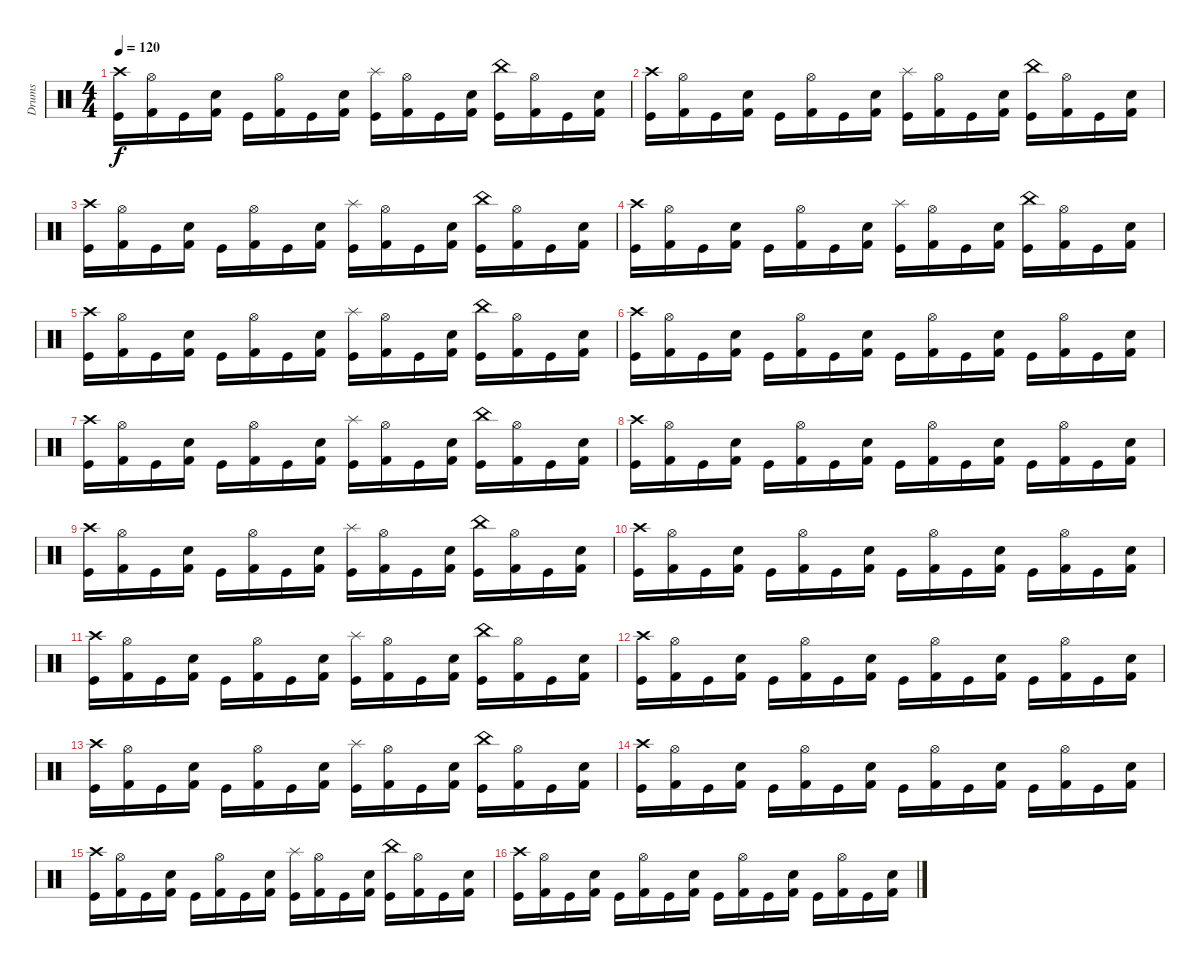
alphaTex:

\track ("Drums" "Drums") {instrument percussion}
\staff {score}
\articulation defaults
\ts (4 4)
\tempo 120
\clef neutral
\ks c
("Crash high (hit)" "Kick (hit)").16{dy f} ("Hi-Hat (open)" "Kick (hit) 2").16 "Kick (hit)".16 ("Electric Snare (hit)" "Kick (hit) 2").16 "Kick (hit)".16 ("Hi-Hat (open)" "Kick (hit) 2").16 "Kick (hit)".16 ("Electric Snare (hit)" "Kick (hit) 2").16 ("Splash (hit)" "Kick (hit)").16 ("Hi-Hat (open)" "Kick (hit) 2").16 "Kick (hit)".16 ("Electric Snare (hit)" "Kick (hit) 2").16 ("China (hit)" "Kick (hit)").16 ("Hi-Hat (open)" "Kick (hit) 2").16 "Kick (hit)".16 ("Electric Snare (hit)" "Kick (hit) 2").16 |
("Crash high (hit)" "Kick (hit)").16 ("Hi-Hat (open)" "Kick (hit) 2").16 "Kick (hit)".16 ("Electric Snare (hit)" "Kick (hit) 2").16 "Kick (hit)".16 ("Hi-Hat (open)" "Kick (hit) 2").16 "Kick (hit)".16 ("Electric Snare (hit)" "Kick (hit) 2").16 ("Splash (hit)" "Kick (hit)").16 ("Hi-Hat (open)" "Kick (hit) 2").16 "Kick (hit)".16 ("Electric Snare (hit)" "Kick (hit) 2").16 ("China (hit)" "Kick (hit)").16 ("Hi-Hat (open)" "Kick (hit) 2").16 "Kick (hit)".16 ("Electric Snare (hit)" "Kick (hit) 2").16 |
("Crash high (hit)" "Kick (hit)").16 ("Hi-Hat (open)" "Kick (hit) 2").16 "Kick (hit)".16 ("Electric Snare (hit)" "Kick (hit) 2").16 "Kick (hit)".16 ("Hi-Hat (open)" "Kick (hit) 2").16 "Kick (hit)".16 ("Electric Snare (hit)" "Kick (hit) 2").16 ("Splash (hit)" "Kick (hit)").16 ("Hi-Hat (open)" "Kick (hit) 2").16 "Kick (hit)".16 ("Electric Snare (hit)" "Kick (hit) 2").16 ("China (hit)" "Kick (hit)").16 ("Hi-Hat (open)" "Kick (hit) 2").16 "Kick (hit)".16 ("Electric Snare (hit)" "Kick (hit) 2").16 |
("Crash high (hit)" "Kick (hit)").16 ("Hi-Hat (open)" "Kick (hit) 2").16 "Kick (hit)".16 ("Electric Snare (hit)" "Kick (hit) 2").16 "Kick (hit)".16 ("Hi-Hat (open)" "Kick (hit) 2").16 "Kick (hit)".16 ("Electric Snare (hit)" "Kick (hit) 2").16 ("Splash (hit)" "Kick (hit)").16 ("Hi-Hat (open)" "Kick (hit) 2").16 "Kick (hit)".16 ("Electric Snare (hit)" "Kick (hit) 2").16 ("China (hit)" "Kick (hit)").16 ("Hi-Hat (open)" "Kick (hit) 2").16 "Kick (hit)".16 ("Electric Snare (hit)" "Kick (hit) 2").16 |
("Crash high (hit)" "Kick (hit)").16 ("Hi-Hat (open)" "Kick (hit) 2").16 "Kick (hit)".16 ("Electric Snare (hit)" "Kick (hit) 2").16 "Kick (hit)".16 ("Hi-Hat (open)" "Kick (hit) 2").16 "Kick (hit)".16 ("Electric Snare (hit)" "Kick (hit) 2").16 ("Splash (hit)" "Kick (hit)").16 ("Hi-Hat (open)" "Kick (hit) 2").16 "Kick (hit)".16 ("Electric Snare (hit)" "Kick (hit) 2").16 ("China (hit)" "Kick (hit)").16 ("Hi-Hat (open)" "Kick (hit) 2").16 "Kick (hit)".16 ("Electric Snare (hit)" "Kick (hit) 2").16 |
("Crash high (hit)" "Kick (hit)").16 ("Hi-Hat (open)" "Kick (hit) 2").16 "Kick (hit)".16 ("Electric Snare (hit)" "Kick (hit) 2").16 "Kick (hit)".16 ("Hi-Hat (open)" "Kick (hit) 2").16 "Kick (hit)".16 ("Electric Snare (hit)" "Kick (hit) 2").16 "Kick (hit)".16 ("Hi-Hat (open)" "Kick (hit) 2").16 "Kick (hit)".16 ("Electric Snare (hit)" "Kick (hit) 2").16 "Kick (hit)".16 ("Hi-Hat (open)" "Kick (hit) 2").16 "Kick (hit)".16 ("Electric Snare (hit)" "Kick (hit) 2").16 |
("Crash high (hit)" "Kick (hit)").16 ("Hi-Hat (open)" "Kick (hit) 2").16 "Kick (hit)".16 ("Electric Snare (hit)" "Kick (hit) 2").16 "Kick (hit)".16 ("Hi-Hat (open)" "Kick (hit) 2").16 "Kick (hit)".16 ("Electric Snare (hit)" "Kick (hit) 2").16 ("Splash (hit)" "Kick (hit)").16 ("Hi-Hat (open)" "Kick (hit) 2").16 "Kick (hit)".16 ("Electric Snare (hit)" "Kick (hit) 2").16 ("China (hit)" "Kick (hit)").16 ("Hi-Hat (open)" "Kick (hit) 2").16 "Kick (hit)".16 ("Electric Snare (hit)" "Kick (hit) 2").16 |
("Crash high (hit)" "Kick (hit)").16 ("Hi-Hat (open)" "Kick (hit) 2").16 "Kick (hit)".16 ("Electric Snare (hit)" "Kick (hit) 2").16 "Kick (hit)".16 ("Hi-Hat (open)" "Kick (hit) 2").16 "Kick (hit)".16 ("Electric Snare (hit)" "Kick (hit) 2").16 "Kick (hit)".16 ("Hi-Hat (open)" "Kick (hit) 2").16 "Kick (hit)".16 ("Electric Snare (hit)" "Kick (hit) 2").16 "Kick (hit)".16 ("Hi-Hat (open)" "Kick (hit) 2").16 "Kick (hit)".16 ("Electric Snare (hit)" "Kick (hit) 2").16 |
("Crash high (hit)" "Kick (hit)").16 ("Hi-Hat (open)" "Kick (hit) 2").16 "Kick (hit)".16 ("Electric Snare (hit)" "Kick (hit) 2").16 "Kick (hit)".16 ("Hi-Hat (open)" "Kick (hit) 2").16 "Kick (hit)".16 ("Electric Snare (hit)" "Kick (hit) 2").16 ("Splash (hit)" "Kick (hit)").16 ("Hi-Hat (open)" "Kick (hit) 2").16 "Kick (hit)".16 ("Electric Snare (hit)" "Kick (hit) 2").16 ("China (hit)" "Kick (hit)").16 ("Hi-Hat (open)" "Kick (hit) 2").16 "Kick (hit)".16 ("Electric Snare (hit)" "Kick (hit) 2").16 |
("Crash high (hit)" "Kick (hit)").16 ("Hi-Hat (open)" "Kick (hit) 2").16 "Kick (hit)".16 ("Electric Snare (hit)" "Kick (hit) 2").16 "Kick (hit)".16 ("Hi-Hat (open)" "Kick (hit) 2").16 "Kick (hit)".16 ("Electric Snare (hit)" "Kick (hit) 2").16 "Kick (hit)".16 ("Hi-Hat (open)" "Kick (hit) 2").16 "Kick (hit)".16 ("Electric Snare (hit)" "Kick (hit) 2").16 "Kick (hit)".16 ("Hi-Hat (open)" "Kick (hit) 2").16 "Kick (hit)".16 ("Electric Snare (hit)" "Kick (hit) 2").16 |
("Crash high (hit)" "Kick (hit)").16 ("Hi-Hat (open)" "Kick (hit) 2").16 "Kick (hit)".16 ("Electric Snare (hit)" "Kick (hit) 2").16 "Kick (hit)".16 ("Hi-Hat (open)" "Kick (hit) 2").16 "Kick (hit)".16 ("Electric Snare (hit)" "Kick (hit) 2").16 ("Splash (hit)" "Kick (hit)").16 ("Hi-Hat (open)" "Kick (hit) 2").16 "Kick (hit)".16 ("Electric Snare (hit)" "Kick (hit) 2").16 ("China (hit)" "Kick (hit)").16 ("Hi-Hat (open)" "Kick (hit) 2").16 "Kick (hit)".16 ("Electric Snare (hit)" "Kick (hit) 2").16 |
("Crash high (hit)" "Kick (hit)").16 ("Hi-Hat (open)" "Kick (hit) 2").16 "Kick (hit)".16 ("Electric Snare (hit)" "Kick (hit) 2").16 "Kick (hit)".16 ("Hi-Hat (open)" "Kick (hit) 2").16 "Kick (hit)".16 ("Electric Snare (hit)" "Kick (hit) 2").16 "Kick (hit)".16 ("Hi-Hat (open)" "Kick (hit) 2").16 "Kick (hit)".16 ("Electric Snare (hit)" "Kick (hit) 2").16 "Kick (hit)".16 ("Hi-Hat (open)" "Kick (hit) 2").16 "Kick (hit)".16 ("Electric Snare (hit)" "Kick (hit) 2").16 |
("Crash high (hit)" "Kick (hit)").16 ("Hi-Hat (open)" "Kick (hit) 2").16 "Kick (hit)".16 ("Electric Snare (hit)" "Kick (hit) 2").16 "Kick (hit)".16 ("Hi-Hat (open)" "Kick (hit) 2").16 "Kick (hit)".16 ("Electric Snare (hit)" "Kick (hit) 2").16 ("Splash (hit)" "Kick (hit)").16 ("Hi-Hat (open)" "Kick (hit) 2").16 "Kick (hit)".16 ("Electric Snare (hit)" "Kick (hit) 2").16 ("China (hit)" "Kick (hit)").16 ("Hi-Hat (open)" "Kick (hit) 2").16 "Kick (hit)".16 ("Electric Snare (hit)" "Kick (hit) 2").16 |
("Crash high (hit)" "Kick (hit)").16 ("Hi-Hat (open)" "Kick (hit) 2").16 "Kick (hit)".16 ("Electric Snare (hit)" "Kick (hit) 2").16 "Kick (hit)".16 ("Hi-Hat (open)" "Kick (hit) 2").16 "Kick (hit)".16 ("Electric Snare (hit)" "Kick (hit) 2").16 "Kick (hit)".16 ("Hi-Hat (open)" "Kick (hit) 2").16 "Kick (hit)".16 ("Electric Snare (hit)" "Kick (hit) 2").16 "Kick (hit)".16 ("Hi-Hat (open)" "Kick (hit) 2").16 "Kick (hit)".16 ("Electric Snare (hit)" "Kick (hit) 2").16 |
("Crash high (hit)" "Kick (hit)").16 ("Hi-Hat (open)" "Kick (hit) 2").16 "Kick (hit)".16 ("Electric Snare (hit)" "Kick (hit) 2").16 "Kick (hit)".16 ("Hi-Hat (open)" "Kick (hit) 2").16 "Kick (hit)".16 ("Electric Snare (hit)" "Kick (hit) 2").16 ("Splash (hit)" "Kick (hit)").16 ("Hi-Hat (open)" "Kick (hit) 2").16 "Kick (hit)".16 ("Electric Snare (hit)" "Kick (hit) 2").16 ("China (hit)" "Kick (hit)").16 ("Hi-Hat (open)" "Kick (hit) 2").16 "Kick (hit)".16 ("Electric Snare (hit)" "Kick (hit) 2").16 |
("Crash high (hit)" "Kick (hit)").16 ("Hi-Hat (open)" "Kick (hit) 2").16 "Kick (hit)".16 ("Electric Snare (hit)" "Kick (hit) 2").16 "Kick (hit)".16 ("Hi-Hat (open)" "Kick (hit) 2").16 "Kick (hit)".16 ("Electric Snare (hit)" "Kick (hit) 2").16 "Kick (hit)".16 ("Hi-Hat (open)" "Kick (hit) 2").16 "Kick (hit)".16 ("Electric Snare (hit)" "Kick (hit) 2").16 "Kick (hit)".16 ("Hi-Hat (open)" "Kick (hit) 2").16 "Kick (hit)".16 ("Electric Snare (hit)" "Kick (hit) 2").16
